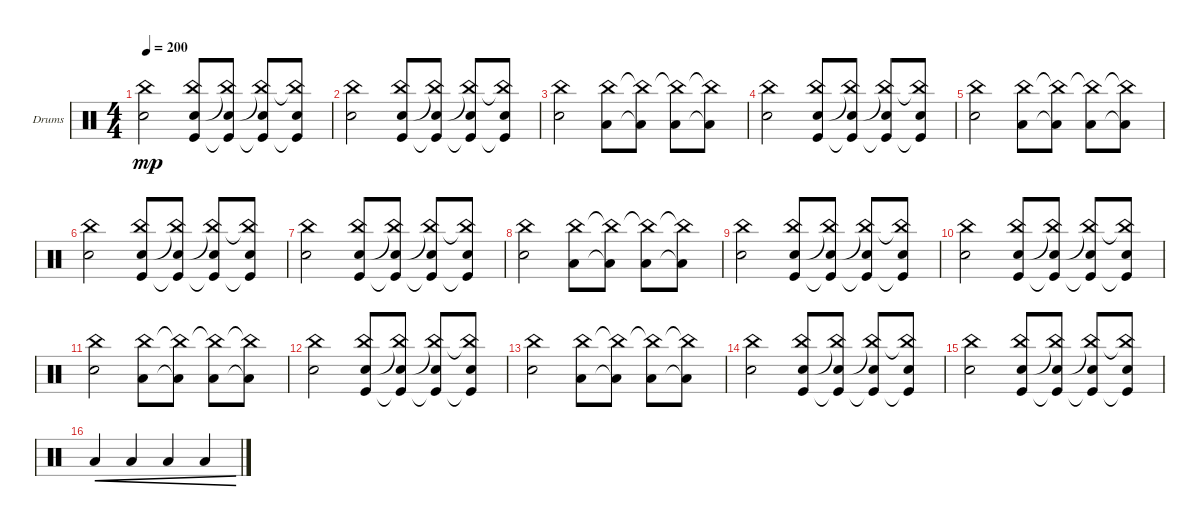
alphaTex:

\defaultSystemsLayout 4
\bracketExtendMode groupsimilarinstruments
\firstSystemTrackNameOrientation horizontal
\otherSystemsTrackNameOrientation horizontal
\track ("Drumkit" "Drums") {instrument percussion}
\staff {score}
\articulation defaults
\ts (4 4)
\tempo 200
\clef neutral
\ks c
("Snare (hit) 2" "China (hit)").2{dy mp} ("Snare (hit) 2" "China (hit)" "Kick (hit)").8 ("China (hit)"{t} "Snare (hit) 2" "Kick (hit)"{t}).8 ("Snare (hit) 2" "China (hit)"{t} "Kick (hit)"{t}).8 ("Snare (hit) 2" "China (hit)"{t} "Kick (hit)"{t}).8 |
("Snare (hit) 2" "China (hit)").2 ("Snare (hit) 2" "China (hit)" "Kick (hit)").8 ("China (hit)"{t} "Snare (hit) 2" "Kick (hit)"{t}).8 ("Snare (hit) 2" "China (hit)"{t} "Kick (hit)"{t}).8 ("Snare (hit) 2" "China (hit)"{t} "Kick (hit)"{t}).8 |
("Snare (hit) 2" "China (hit)").2 ("China (hit)" "Low Tom (hit)").8 ("China (hit)"{t} "Low Tom (hit)"{t}).8 ("China (hit)"{t} "Low Tom (hit)").8 ("China (hit)"{t} "Low Tom (hit)"{t}).8 |
("Snare (hit) 2" "China (hit)").2 ("Snare (hit) 2" "China (hit)" "Kick (hit)").8 ("China (hit)"{t} "Snare (hit) 2" "Kick (hit)"{t}).8 ("Snare (hit) 2" "China (hit)"{t} "Kick (hit)"{t}).8 ("Snare (hit) 2" "China (hit)"{t} "Kick (hit)"{t}).8 |
("Snare (hit) 2" "China (hit)").2 ("China (hit)" "Low Tom (hit)").8 ("China (hit)"{t} "Low Tom (hit)"{t}).8 ("China (hit)"{t} "Low Tom (hit)").8 ("China (hit)"{t} "Low Tom (hit)"{t}).8 |
("Snare (hit) 2" "China (hit)").2 ("Snare (hit) 2" "China (hit)" "Kick (hit)").8 ("China (hit)"{t} "Snare (hit) 2" "Kick (hit)"{t}).8 ("Snare (hit) 2" "China (hit)"{t} "Kick (hit)"{t}).8 ("Snare (hit) 2" "China (hit)"{t} "Kick (hit)"{t}).8 |
("Snare (hit) 2" "China (hit)").2 ("Snare (hit) 2" "China (hit)" "Kick (hit)").8 ("China (hit)"{t} "Snare (hit) 2" "Kick (hit)"{t}).8 ("Snare (hit) 2" "China (hit)"{t} "Kick (hit)"{t}).8 ("Snare (hit) 2" "China (hit)"{t} "Kick (hit)"{t}).8 |
("Snare (hit) 2" "China (hit)").2 ("China (hit)" "Low Tom (hit)").8 ("China (hit)"{t} "Low Tom (hit)"{t}).8 ("China (hit)"{t} "Low Tom (hit)").8 ("China (hit)"{t} "Low Tom (hit)"{t}).8 |
("Snare (hit) 2" "China (hit)").2 ("Snare (hit) 2" "China (hit)" "Kick (hit)").8 ("China (hit)"{t} "Snare (hit) 2" "Kick (hit)"{t}).8 ("Snare (hit) 2" "China (hit)"{t} "Kick (hit)"{t}).8 ("Snare (hit) 2" "China (hit)"{t} "Kick (hit)"{t}).8 |
("Snare (hit) 2" "China (hit)").2 ("Snare (hit) 2" "China (hit)" "Kick (hit)").8 ("China (hit)"{t} "Snare (hit) 2" "Kick (hit)"{t}).8 ("Snare (hit) 2" "China (hit)"{t} "Kick (hit)"{t}).8 ("Snare (hit) 2" "China (hit)"{t} "Kick (hit)"{t}).8 |
("Snare (hit) 2" "China (hit)").2 ("China (hit)" "Low Tom (hit)").8 ("China (hit)"{t} "Low Tom (hit)"{t}).8 ("China (hit)"{t} "Low Tom (hit)").8 ("China (hit)"{t} "Low Tom (hit)"{t}).8 |
("Snare (hit) 2" "China (hit)").2 ("Snare (hit) 2" "China (hit)" "Kick (hit)").8 ("China (hit)"{t} "Snare (hit) 2" "Kick (hit)"{t}).8 ("Snare (hit) 2" "China (hit)"{t} "Kick (hit)"{t}).8 ("Snare (hit) 2" "China (hit)"{t} "Kick (hit)"{t}).8 |
("Snare (hit) 2" "China (hit)").2 ("China (hit)" "Low Tom (hit)").8 ("China (hit)"{t} "Low Tom (hit)"{t}).8 ("China (hit)"{t} "Low Tom (hit)").8 ("China (hit)"{t} "Low Tom (hit)"{t}).8 |
("Snare (hit) 2" "China (hit)").2 ("Snare (hit) 2" "China (hit)" "Kick (hit)").8 ("China (hit)"{t} "Snare (hit) 2" "Kick (hit)"{t}).8 ("Snare (hit) 2" "China (hit)"{t} "Kick (hit)"{t}).8 ("Snare (hit) 2" "China (hit)"{t} "Kick (hit)"{t}).8 |
("Snare (hit) 2" "China (hit)").2 ("Snare (hit) 2" "China (hit)" "Kick (hit)").8 ("China (hit)"{t} "Snare (hit) 2" "Kick (hit)"{t}).8 ("Snare (hit) 2" "China (hit)"{t} "Kick (hit)"{t}).8 ("Snare (hit) 2" "China (hit)"{t} "Kick (hit)"{t}).8 |
"Low Tom (hit)".4{cre} "Low Tom (hit)".4{cre} "Low Tom (hit)".4{cre} "Low Tom (hit)".4{cre}
